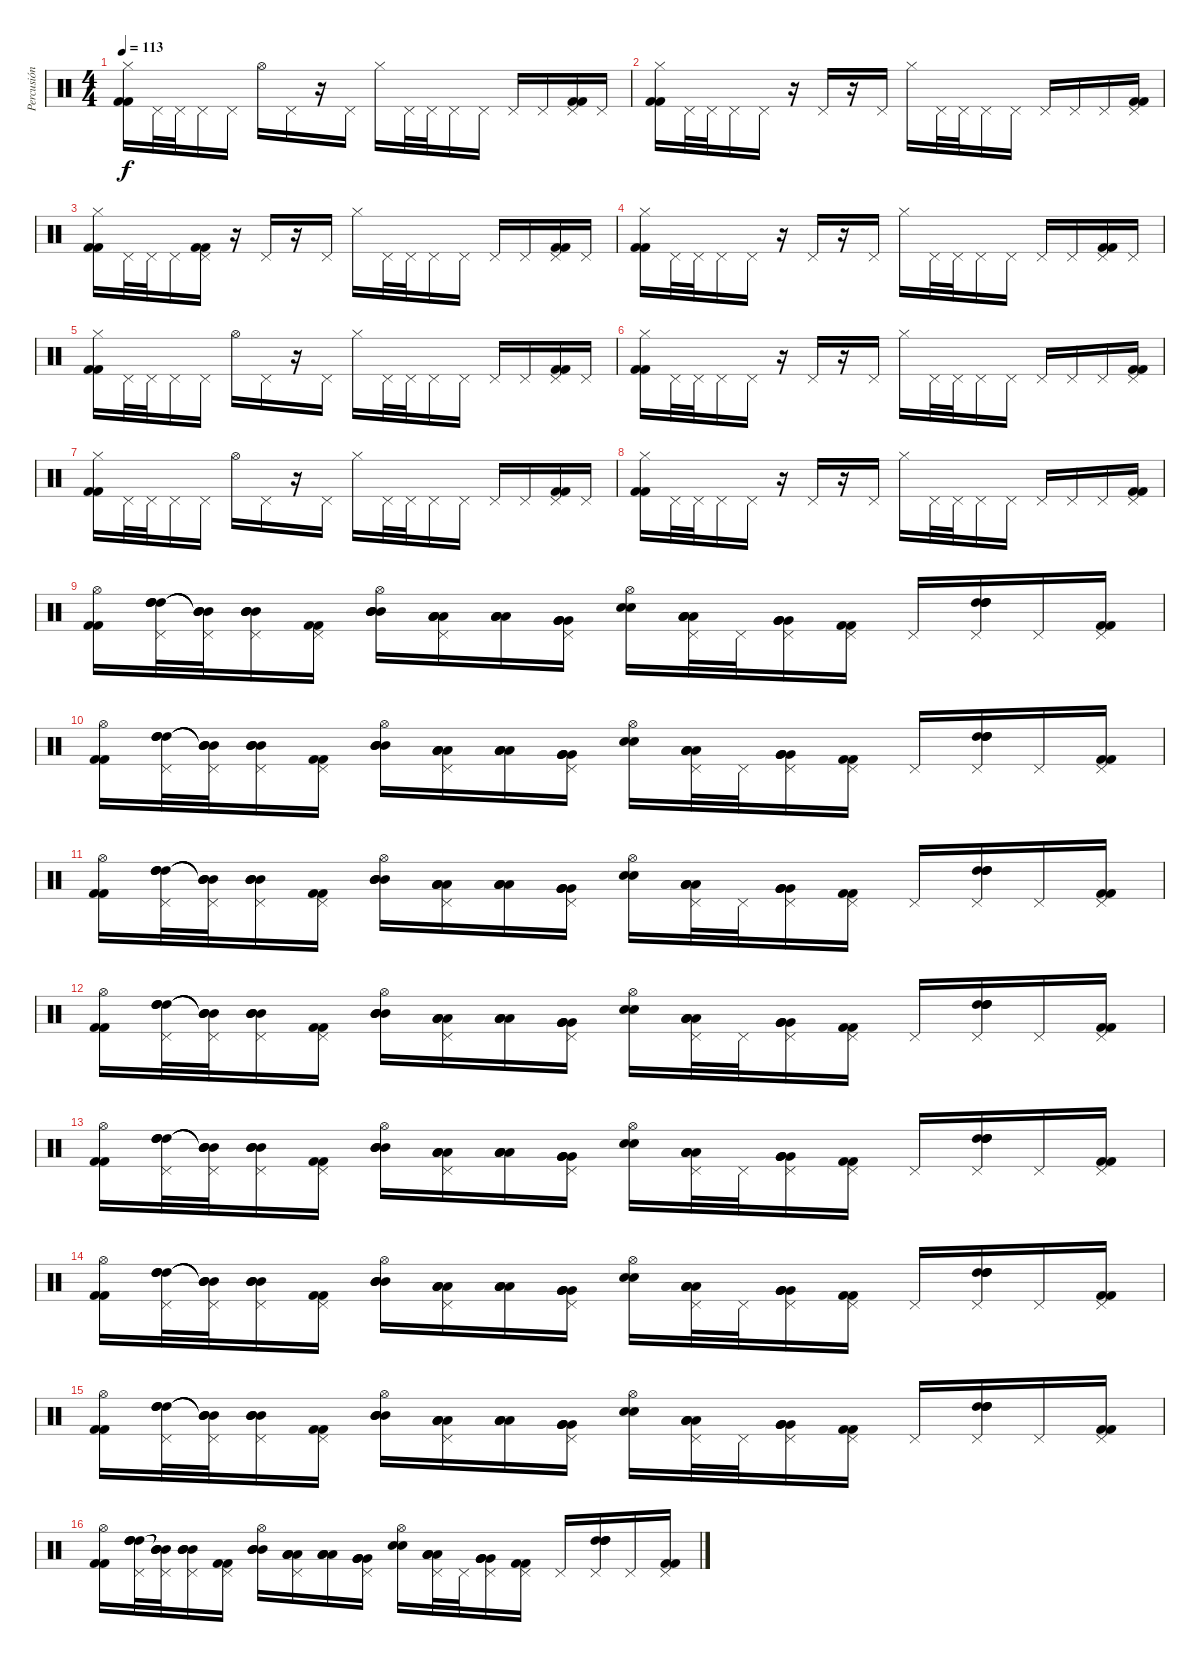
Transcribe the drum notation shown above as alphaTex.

\track ("Percusión" "Percusión") {instrument percussion}
\staff {score}
\articulation defaults
\ts (4 4)
\tempo 113
\clef neutral
\ks c
("Hi-Hat (closed)" "Kick (hit) 2" "Kick (hit) 2").16{dy f} "Pedal Hi-Hat (hit)".32 "Pedal Hi-Hat (hit)".32 "Pedal Hi-Hat (hit)".16 "Pedal Hi-Hat (hit)".16 "Hi-Hat (open)".16 "Pedal Hi-Hat (hit)".16 r.16 "Pedal Hi-Hat (hit)".16 "Hi-Hat (closed)".16 "Pedal Hi-Hat (hit)".32 "Pedal Hi-Hat (hit)".32 "Pedal Hi-Hat (hit)".16 "Pedal Hi-Hat (hit)".16 "Pedal Hi-Hat (hit)".16 "Pedal Hi-Hat (hit)".16 ("Pedal Hi-Hat (hit)" "Kick (hit) 2" "Kick (hit) 2").16 "Pedal Hi-Hat (hit)".16 |
("Hi-Hat (closed)" "Kick (hit) 2" "Kick (hit) 2").16 "Pedal Hi-Hat (hit)".32 "Pedal Hi-Hat (hit)".32 "Pedal Hi-Hat (hit)".16 "Pedal Hi-Hat (hit)".16 r.16 "Pedal Hi-Hat (hit)".16 r.16 "Pedal Hi-Hat (hit)".16 "Hi-Hat (closed)".16 "Pedal Hi-Hat (hit)".32 "Pedal Hi-Hat (hit)".32 "Pedal Hi-Hat (hit)".16 "Pedal Hi-Hat (hit)".16 "Pedal Hi-Hat (hit)".16 "Pedal Hi-Hat (hit)".16 "Pedal Hi-Hat (hit)".16 ("Pedal Hi-Hat (hit)" "Kick (hit) 2" "Kick (hit) 2").16 |
("Hi-Hat (closed)" "Kick (hit) 2" "Kick (hit) 2").16 "Pedal Hi-Hat (hit)".32 "Pedal Hi-Hat (hit)".32 "Pedal Hi-Hat (hit)".16 ("Pedal Hi-Hat (hit)" "Kick (hit) 2" "Kick (hit) 2").16 r.16 "Pedal Hi-Hat (hit)".16 r.16 "Pedal Hi-Hat (hit)".16 "Hi-Hat (closed)".16 "Pedal Hi-Hat (hit)".32 "Pedal Hi-Hat (hit)".32 "Pedal Hi-Hat (hit)".16 "Pedal Hi-Hat (hit)".16 "Pedal Hi-Hat (hit)".16 "Pedal Hi-Hat (hit)".16 ("Pedal Hi-Hat (hit)" "Kick (hit) 2" "Kick (hit) 2").16 "Pedal Hi-Hat (hit)".16 |
("Hi-Hat (closed)" "Kick (hit) 2" "Kick (hit) 2").16 "Pedal Hi-Hat (hit)".32 "Pedal Hi-Hat (hit)".32 "Pedal Hi-Hat (hit)".16 "Pedal Hi-Hat (hit)".16 r.16 "Pedal Hi-Hat (hit)".16 r.16 "Pedal Hi-Hat (hit)".16 "Hi-Hat (closed)".16 "Pedal Hi-Hat (hit)".32 "Pedal Hi-Hat (hit)".32 "Pedal Hi-Hat (hit)".16 "Pedal Hi-Hat (hit)".16 "Pedal Hi-Hat (hit)".16 "Pedal Hi-Hat (hit)".16 ("Pedal Hi-Hat (hit)" "Kick (hit) 2" "Kick (hit) 2").16 "Pedal Hi-Hat (hit)".16 |
("Hi-Hat (closed)" "Kick (hit) 2" "Kick (hit) 2").16 "Pedal Hi-Hat (hit)".32 "Pedal Hi-Hat (hit)".32 "Pedal Hi-Hat (hit)".16 "Pedal Hi-Hat (hit)".16 "Hi-Hat (open)".16 "Pedal Hi-Hat (hit)".16 r.16 "Pedal Hi-Hat (hit)".16 "Hi-Hat (closed)".16 "Pedal Hi-Hat (hit)".32 "Pedal Hi-Hat (hit)".32 "Pedal Hi-Hat (hit)".16 "Pedal Hi-Hat (hit)".16 "Pedal Hi-Hat (hit)".16 "Pedal Hi-Hat (hit)".16 ("Pedal Hi-Hat (hit)" "Kick (hit) 2" "Kick (hit) 2").16 "Pedal Hi-Hat (hit)".16 |
("Hi-Hat (closed)" "Kick (hit) 2" "Kick (hit) 2").16 "Pedal Hi-Hat (hit)".32 "Pedal Hi-Hat (hit)".32 "Pedal Hi-Hat (hit)".16 "Pedal Hi-Hat (hit)".16 r.16 "Pedal Hi-Hat (hit)".16 r.16 "Pedal Hi-Hat (hit)".16 "Hi-Hat (closed)".16 "Pedal Hi-Hat (hit)".32 "Pedal Hi-Hat (hit)".32 "Pedal Hi-Hat (hit)".16 "Pedal Hi-Hat (hit)".16 "Pedal Hi-Hat (hit)".16 "Pedal Hi-Hat (hit)".16 "Pedal Hi-Hat (hit)".16 ("Pedal Hi-Hat (hit)" "Kick (hit) 2" "Kick (hit) 2").16 |
("Hi-Hat (closed)" "Kick (hit) 2" "Kick (hit) 2").16 "Pedal Hi-Hat (hit)".32 "Pedal Hi-Hat (hit)".32 "Pedal Hi-Hat (hit)".16 "Pedal Hi-Hat (hit)".16 "Hi-Hat (open)".16 "Pedal Hi-Hat (hit)".16 r.16 "Pedal Hi-Hat (hit)".16 "Hi-Hat (closed)".16 "Pedal Hi-Hat (hit)".32 "Pedal Hi-Hat (hit)".32 "Pedal Hi-Hat (hit)".16 "Pedal Hi-Hat (hit)".16 "Pedal Hi-Hat (hit)".16 "Pedal Hi-Hat (hit)".16 ("Pedal Hi-Hat (hit)" "Kick (hit) 2" "Kick (hit) 2").16 "Pedal Hi-Hat (hit)".16 |
("Hi-Hat (closed)" "Kick (hit) 2" "Kick (hit) 2").16 "Pedal Hi-Hat (hit)".32 "Pedal Hi-Hat (hit)".32 "Pedal Hi-Hat (hit)".16 "Pedal Hi-Hat (hit)".16 r.16 "Pedal Hi-Hat (hit)".16 r.16 "Pedal Hi-Hat (hit)".16 "Hi-Hat (closed)".16 "Pedal Hi-Hat (hit)".32 "Pedal Hi-Hat (hit)".32 "Pedal Hi-Hat (hit)".16 "Pedal Hi-Hat (hit)".16 "Pedal Hi-Hat (hit)".16 "Pedal Hi-Hat (hit)".16 "Pedal Hi-Hat (hit)".16 ("Pedal Hi-Hat (hit)" "Kick (hit) 2" "Kick (hit) 2").16 |
("Hi-Hat (open)" "Kick (hit) 2" "Kick (hit) 2").16 ("Pedal Hi-Hat (hit)" "High Tom (hit)" "High Tom (hit)" "High Tom (hit)" "High Tom (hit)").32 ("Pedal Hi-Hat (hit)" "Mid Tom (hit)"{t} "Mid Tom (hit)"{t} "Mid Tom (hit)"{t} "Mid Tom (hit)"{t}).32 ("Pedal Hi-Hat (hit)" "Mid Tom (hit)" "Mid Tom (hit)" "Mid Tom (hit)" "Mid Tom (hit)").16 ("Pedal Hi-Hat (hit)" "Kick (hit) 2" "Kick (hit) 2").16 ("Hi-Hat (open)" "Mid Tom (hit)" "Mid Tom (hit)" "Mid Tom (hit)" "Mid Tom (hit)").16 ("Pedal Hi-Hat (hit)" "Low Tom (hit)" "Low Tom (hit)" "Low Tom (hit)" "Low Tom (hit)").16 ("Low Tom (hit)" "Low Tom (hit)" "Low Tom (hit)" "Low Tom (hit)").16 ("Pedal Hi-Hat (hit)" "Very Low Tom (hit)" "Very Low Tom (hit)" "Very Low Tom (hit)" "Very Low Tom (hit)").16 ("Hi-Hat (open)" "Electric Snare (hit)" "Electric Snare (hit)").16 ("Pedal Hi-Hat (hit)" "Low Tom (hit)" "Low Tom (hit)" "Low Tom (hit)" "Low Tom (hit)").32 "Pedal Hi-Hat (hit)".32 ("Pedal Hi-Hat (hit)" "Very Low Tom (hit)" "Very Low Tom (hit)" "Very Low Tom (hit)" "Very Low Tom (hit)").16 ("Pedal Hi-Hat (hit)" "Kick (hit) 2" "Kick (hit) 2").16 "Pedal Hi-Hat (hit)".16 ("Pedal Hi-Hat (hit)" "High Tom (hit)" "High Tom (hit)" "High Tom (hit)" "High Tom (hit)").16 "Pedal Hi-Hat (hit)".16 ("Pedal Hi-Hat (hit)" "Kick (hit) 2" "Kick (hit) 2").16 |
("Hi-Hat (open)" "Kick (hit) 2" "Kick (hit) 2").16 ("Pedal Hi-Hat (hit)" "High Tom (hit)" "High Tom (hit)" "High Tom (hit)" "High Tom (hit)").32 ("Pedal Hi-Hat (hit)" "Mid Tom (hit)"{t} "Mid Tom (hit)"{t} "Mid Tom (hit)"{t} "Mid Tom (hit)"{t}).32 ("Pedal Hi-Hat (hit)" "Mid Tom (hit)" "Mid Tom (hit)" "Mid Tom (hit)" "Mid Tom (hit)").16 ("Pedal Hi-Hat (hit)" "Kick (hit) 2" "Kick (hit) 2").16 ("Hi-Hat (open)" "Mid Tom (hit)" "Mid Tom (hit)" "Mid Tom (hit)" "Mid Tom (hit)").16 ("Pedal Hi-Hat (hit)" "Low Tom (hit)" "Low Tom (hit)" "Low Tom (hit)" "Low Tom (hit)").16 ("Low Tom (hit)" "Low Tom (hit)" "Low Tom (hit)" "Low Tom (hit)").16 ("Pedal Hi-Hat (hit)" "Very Low Tom (hit)" "Very Low Tom (hit)" "Very Low Tom (hit)" "Very Low Tom (hit)").16 ("Hi-Hat (open)" "Electric Snare (hit)" "Electric Snare (hit)").16 ("Pedal Hi-Hat (hit)" "Low Tom (hit)" "Low Tom (hit)" "Low Tom (hit)" "Low Tom (hit)").32 "Pedal Hi-Hat (hit)".32 ("Pedal Hi-Hat (hit)" "Very Low Tom (hit)" "Very Low Tom (hit)" "Very Low Tom (hit)" "Very Low Tom (hit)").16 ("Pedal Hi-Hat (hit)" "Kick (hit) 2" "Kick (hit) 2").16 "Pedal Hi-Hat (hit)".16 ("Pedal Hi-Hat (hit)" "High Tom (hit)" "High Tom (hit)" "High Tom (hit)" "High Tom (hit)").16 "Pedal Hi-Hat (hit)".16 ("Pedal Hi-Hat (hit)" "Kick (hit) 2" "Kick (hit) 2").16 |
("Hi-Hat (open)" "Kick (hit) 2" "Kick (hit) 2").16 ("Pedal Hi-Hat (hit)" "High Tom (hit)" "High Tom (hit)" "High Tom (hit)" "High Tom (hit)").32 ("Pedal Hi-Hat (hit)" "Mid Tom (hit)"{t} "Mid Tom (hit)"{t} "Mid Tom (hit)"{t} "Mid Tom (hit)"{t}).32 ("Pedal Hi-Hat (hit)" "Mid Tom (hit)" "Mid Tom (hit)" "Mid Tom (hit)" "Mid Tom (hit)").16 ("Pedal Hi-Hat (hit)" "Kick (hit) 2" "Kick (hit) 2").16 ("Hi-Hat (open)" "Mid Tom (hit)" "Mid Tom (hit)" "Mid Tom (hit)" "Mid Tom (hit)").16 ("Pedal Hi-Hat (hit)" "Low Tom (hit)" "Low Tom (hit)" "Low Tom (hit)" "Low Tom (hit)").16 ("Low Tom (hit)" "Low Tom (hit)" "Low Tom (hit)" "Low Tom (hit)").16 ("Pedal Hi-Hat (hit)" "Very Low Tom (hit)" "Very Low Tom (hit)" "Very Low Tom (hit)" "Very Low Tom (hit)").16 ("Hi-Hat (open)" "Electric Snare (hit)" "Electric Snare (hit)").16 ("Pedal Hi-Hat (hit)" "Low Tom (hit)" "Low Tom (hit)" "Low Tom (hit)" "Low Tom (hit)").32 "Pedal Hi-Hat (hit)".32 ("Pedal Hi-Hat (hit)" "Very Low Tom (hit)" "Very Low Tom (hit)" "Very Low Tom (hit)" "Very Low Tom (hit)").16 ("Pedal Hi-Hat (hit)" "Kick (hit) 2" "Kick (hit) 2").16 "Pedal Hi-Hat (hit)".16 ("Pedal Hi-Hat (hit)" "High Tom (hit)" "High Tom (hit)" "High Tom (hit)" "High Tom (hit)").16 "Pedal Hi-Hat (hit)".16 ("Pedal Hi-Hat (hit)" "Kick (hit) 2" "Kick (hit) 2").16 |
("Hi-Hat (open)" "Kick (hit) 2" "Kick (hit) 2").16 ("Pedal Hi-Hat (hit)" "High Tom (hit)" "High Tom (hit)" "High Tom (hit)" "High Tom (hit)").32 ("Pedal Hi-Hat (hit)" "Mid Tom (hit)"{t} "Mid Tom (hit)"{t} "Mid Tom (hit)"{t} "Mid Tom (hit)"{t}).32 ("Pedal Hi-Hat (hit)" "Mid Tom (hit)" "Mid Tom (hit)" "Mid Tom (hit)" "Mid Tom (hit)").16 ("Pedal Hi-Hat (hit)" "Kick (hit) 2" "Kick (hit) 2").16 ("Hi-Hat (open)" "Mid Tom (hit)" "Mid Tom (hit)" "Mid Tom (hit)" "Mid Tom (hit)").16 ("Pedal Hi-Hat (hit)" "Low Tom (hit)" "Low Tom (hit)" "Low Tom (hit)" "Low Tom (hit)").16 ("Low Tom (hit)" "Low Tom (hit)" "Low Tom (hit)" "Low Tom (hit)").16 ("Pedal Hi-Hat (hit)" "Very Low Tom (hit)" "Very Low Tom (hit)" "Very Low Tom (hit)" "Very Low Tom (hit)").16 ("Hi-Hat (open)" "Electric Snare (hit)" "Electric Snare (hit)").16 ("Pedal Hi-Hat (hit)" "Low Tom (hit)" "Low Tom (hit)" "Low Tom (hit)" "Low Tom (hit)").32 "Pedal Hi-Hat (hit)".32 ("Pedal Hi-Hat (hit)" "Very Low Tom (hit)" "Very Low Tom (hit)" "Very Low Tom (hit)" "Very Low Tom (hit)").16 ("Pedal Hi-Hat (hit)" "Kick (hit) 2" "Kick (hit) 2").16 "Pedal Hi-Hat (hit)".16 ("Pedal Hi-Hat (hit)" "High Tom (hit)" "High Tom (hit)" "High Tom (hit)" "High Tom (hit)").16 "Pedal Hi-Hat (hit)".16 ("Pedal Hi-Hat (hit)" "Kick (hit) 2" "Kick (hit) 2").16 |
("Hi-Hat (open)" "Kick (hit) 2" "Kick (hit) 2").16 ("Pedal Hi-Hat (hit)" "High Tom (hit)" "High Tom (hit)" "High Tom (hit)" "High Tom (hit)").32 ("Pedal Hi-Hat (hit)" "Mid Tom (hit)"{t} "Mid Tom (hit)"{t} "Mid Tom (hit)"{t} "Mid Tom (hit)"{t}).32 ("Pedal Hi-Hat (hit)" "Mid Tom (hit)" "Mid Tom (hit)" "Mid Tom (hit)" "Mid Tom (hit)").16 ("Pedal Hi-Hat (hit)" "Kick (hit) 2" "Kick (hit) 2").16 ("Hi-Hat (open)" "Mid Tom (hit)" "Mid Tom (hit)" "Mid Tom (hit)" "Mid Tom (hit)").16 ("Pedal Hi-Hat (hit)" "Low Tom (hit)" "Low Tom (hit)" "Low Tom (hit)" "Low Tom (hit)").16 ("Low Tom (hit)" "Low Tom (hit)" "Low Tom (hit)" "Low Tom (hit)").16 ("Pedal Hi-Hat (hit)" "Very Low Tom (hit)" "Very Low Tom (hit)" "Very Low Tom (hit)" "Very Low Tom (hit)").16 ("Hi-Hat (open)" "Electric Snare (hit)" "Electric Snare (hit)").16 ("Pedal Hi-Hat (hit)" "Low Tom (hit)" "Low Tom (hit)" "Low Tom (hit)" "Low Tom (hit)").32 "Pedal Hi-Hat (hit)".32 ("Pedal Hi-Hat (hit)" "Very Low Tom (hit)" "Very Low Tom (hit)" "Very Low Tom (hit)" "Very Low Tom (hit)").16 ("Pedal Hi-Hat (hit)" "Kick (hit) 2" "Kick (hit) 2").16 "Pedal Hi-Hat (hit)".16 ("Pedal Hi-Hat (hit)" "High Tom (hit)" "High Tom (hit)" "High Tom (hit)" "High Tom (hit)").16 "Pedal Hi-Hat (hit)".16 ("Pedal Hi-Hat (hit)" "Kick (hit) 2" "Kick (hit) 2").16 |
("Hi-Hat (open)" "Kick (hit) 2" "Kick (hit) 2").16 ("Pedal Hi-Hat (hit)" "High Tom (hit)" "High Tom (hit)" "High Tom (hit)" "High Tom (hit)").32 ("Pedal Hi-Hat (hit)" "Mid Tom (hit)"{t} "Mid Tom (hit)"{t} "Mid Tom (hit)"{t} "Mid Tom (hit)"{t}).32 ("Pedal Hi-Hat (hit)" "Mid Tom (hit)" "Mid Tom (hit)" "Mid Tom (hit)" "Mid Tom (hit)").16 ("Pedal Hi-Hat (hit)" "Kick (hit) 2" "Kick (hit) 2").16 ("Hi-Hat (open)" "Mid Tom (hit)" "Mid Tom (hit)" "Mid Tom (hit)" "Mid Tom (hit)").16 ("Pedal Hi-Hat (hit)" "Low Tom (hit)" "Low Tom (hit)" "Low Tom (hit)" "Low Tom (hit)").16 ("Low Tom (hit)" "Low Tom (hit)" "Low Tom (hit)" "Low Tom (hit)").16 ("Pedal Hi-Hat (hit)" "Very Low Tom (hit)" "Very Low Tom (hit)" "Very Low Tom (hit)" "Very Low Tom (hit)").16 ("Hi-Hat (open)" "Electric Snare (hit)" "Electric Snare (hit)").16 ("Pedal Hi-Hat (hit)" "Low Tom (hit)" "Low Tom (hit)" "Low Tom (hit)" "Low Tom (hit)").32 "Pedal Hi-Hat (hit)".32 ("Pedal Hi-Hat (hit)" "Very Low Tom (hit)" "Very Low Tom (hit)" "Very Low Tom (hit)" "Very Low Tom (hit)").16 ("Pedal Hi-Hat (hit)" "Kick (hit) 2" "Kick (hit) 2").16 "Pedal Hi-Hat (hit)".16 ("Pedal Hi-Hat (hit)" "High Tom (hit)" "High Tom (hit)" "High Tom (hit)" "High Tom (hit)").16 "Pedal Hi-Hat (hit)".16 ("Pedal Hi-Hat (hit)" "Kick (hit) 2" "Kick (hit) 2").16 |
("Hi-Hat (open)" "Kick (hit) 2" "Kick (hit) 2").16 ("Pedal Hi-Hat (hit)" "High Tom (hit)" "High Tom (hit)" "High Tom (hit)" "High Tom (hit)").32 ("Pedal Hi-Hat (hit)" "Mid Tom (hit)"{t} "Mid Tom (hit)"{t} "Mid Tom (hit)"{t} "Mid Tom (hit)"{t}).32 ("Pedal Hi-Hat (hit)" "Mid Tom (hit)" "Mid Tom (hit)" "Mid Tom (hit)" "Mid Tom (hit)").16 ("Pedal Hi-Hat (hit)" "Kick (hit) 2" "Kick (hit) 2").16 ("Hi-Hat (open)" "Mid Tom (hit)" "Mid Tom (hit)" "Mid Tom (hit)" "Mid Tom (hit)").16 ("Pedal Hi-Hat (hit)" "Low Tom (hit)" "Low Tom (hit)" "Low Tom (hit)" "Low Tom (hit)").16 ("Low Tom (hit)" "Low Tom (hit)" "Low Tom (hit)" "Low Tom (hit)").16 ("Pedal Hi-Hat (hit)" "Very Low Tom (hit)" "Very Low Tom (hit)" "Very Low Tom (hit)" "Very Low Tom (hit)").16 ("Hi-Hat (open)" "Electric Snare (hit)" "Electric Snare (hit)").16 ("Pedal Hi-Hat (hit)" "Low Tom (hit)" "Low Tom (hit)" "Low Tom (hit)" "Low Tom (hit)").32 "Pedal Hi-Hat (hit)".32 ("Pedal Hi-Hat (hit)" "Very Low Tom (hit)" "Very Low Tom (hit)" "Very Low Tom (hit)" "Very Low Tom (hit)").16 ("Pedal Hi-Hat (hit)" "Kick (hit) 2" "Kick (hit) 2").16 "Pedal Hi-Hat (hit)".16 ("Pedal Hi-Hat (hit)" "High Tom (hit)" "High Tom (hit)" "High Tom (hit)" "High Tom (hit)").16 "Pedal Hi-Hat (hit)".16 ("Pedal Hi-Hat (hit)" "Kick (hit) 2" "Kick (hit) 2").16 |
("Hi-Hat (open)" "Kick (hit) 2" "Kick (hit) 2").16 ("Pedal Hi-Hat (hit)" "High Tom (hit)" "High Tom (hit)" "High Tom (hit)" "High Tom (hit)").32 ("Pedal Hi-Hat (hit)" "Mid Tom (hit)"{t} "Mid Tom (hit)"{t} "Mid Tom (hit)"{t} "Mid Tom (hit)"{t}).32 ("Pedal Hi-Hat (hit)" "Mid Tom (hit)" "Mid Tom (hit)" "Mid Tom (hit)" "Mid Tom (hit)").16 ("Pedal Hi-Hat (hit)" "Kick (hit) 2" "Kick (hit) 2").16 ("Hi-Hat (open)" "Mid Tom (hit)" "Mid Tom (hit)" "Mid Tom (hit)" "Mid Tom (hit)").16 ("Pedal Hi-Hat (hit)" "Low Tom (hit)" "Low Tom (hit)" "Low Tom (hit)" "Low Tom (hit)").16 ("Low Tom (hit)" "Low Tom (hit)" "Low Tom (hit)" "Low Tom (hit)").16 ("Pedal Hi-Hat (hit)" "Very Low Tom (hit)" "Very Low Tom (hit)" "Very Low Tom (hit)" "Very Low Tom (hit)").16 ("Hi-Hat (open)" "Electric Snare (hit)" "Electric Snare (hit)").16 ("Pedal Hi-Hat (hit)" "Low Tom (hit)" "Low Tom (hit)" "Low Tom (hit)" "Low Tom (hit)").32 "Pedal Hi-Hat (hit)".32 ("Pedal Hi-Hat (hit)" "Very Low Tom (hit)" "Very Low Tom (hit)" "Very Low Tom (hit)" "Very Low Tom (hit)").16 ("Pedal Hi-Hat (hit)" "Kick (hit) 2" "Kick (hit) 2").16 "Pedal Hi-Hat (hit)".16 ("Pedal Hi-Hat (hit)" "High Tom (hit)" "High Tom (hit)" "High Tom (hit)" "High Tom (hit)").16 "Pedal Hi-Hat (hit)".16 ("Pedal Hi-Hat (hit)" "Kick (hit) 2" "Kick (hit) 2").16
